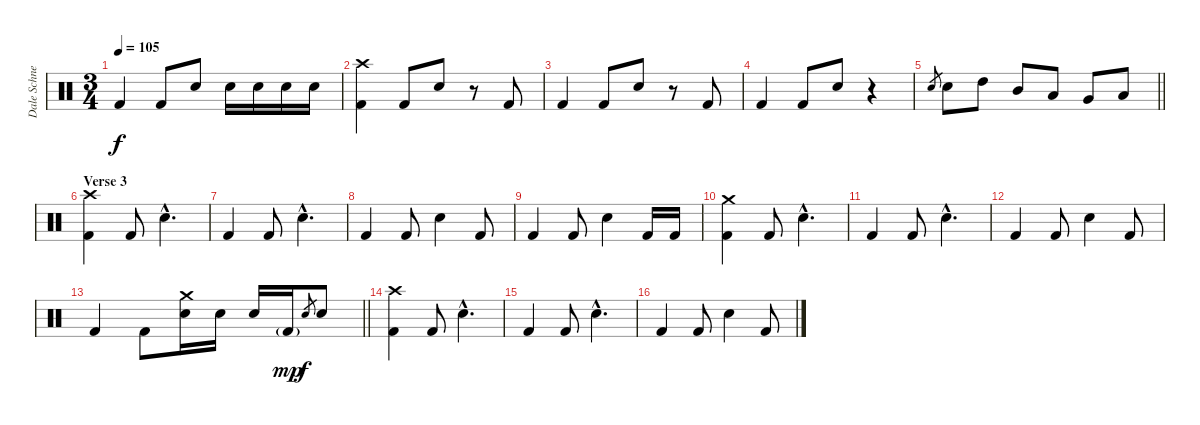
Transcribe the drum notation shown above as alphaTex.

\track ("Dale Schnettler (Drums)" "Dale Schne") {instrument percussion}
\staff {score}
\articulation defaults
\ts (3 4)
\tempo 105
\clef neutral
\ks c "Kick (hit) 2".4{dy f} "Kick (hit) 2".8 "Electric Snare (hit)".8 "Electric Snare (hit)".16 "Electric Snare (hit)".16 "Electric Snare (hit)".16 "Electric Snare (hit)".16
|
("Crash high (hit)" "Kick (hit) 2").4 "Kick (hit) 2".8 "Electric Snare (hit)".8 r.8 "Kick (hit) 2".8 |
"Kick (hit) 2".4 "Kick (hit) 2".8 "Electric Snare (hit)".8 r.8 "Kick (hit) 2".8 |
"Kick (hit) 2".4 "Kick (hit) 2".8 "Electric Snare (hit)".8 r.4 |
\barLineRight lightlight "Electric Snare (hit)".8{gr} "Electric Snare (hit)".8 "High Tom (hit)".8 "Mid Tom (hit)".8 "Low Tom (hit)".8 "Very Low Tom (hit)".8 "Low Floor Tom (hit)".8
|
\section ("" "Verse 3")
("Crash high (hit)" "Kick (hit) 2").4 "Kick (hit) 2".8 "Electric Snare (hit)"{hac}.4{d} |
"Kick (hit) 2".4 "Kick (hit) 2".8 "Electric Snare (hit)"{hac}.4{d} |
"Kick (hit) 2".4 "Kick (hit) 2".8 "Electric Snare (hit)".4 "Kick (hit) 2".8 |
"Kick (hit) 2".4 "Kick (hit) 2".8 "Electric Snare (hit)".4 "Kick (hit) 2".16 "Kick (hit) 2".16 |
("Crash medium (hit)" "Kick (hit) 2").4 "Kick (hit) 2".8 "Electric Snare (hit)"{hac}.4{d} |
"Kick (hit) 2".4 "Kick (hit) 2".8 "Electric Snare (hit)"{hac}.4{d} |
"Kick (hit) 2".4 "Kick (hit) 2".8 "Electric Snare (hit)".4 "Kick (hit) 2".8 |
\barLineRight lightlight "Kick (hit) 2".4 "Kick (hit) 2".8
("Crash medium (hit)" "Electric Snare (hit)").16 "Electric Snare (hit)".16 "Electric Snare (hit)".16 "Kick (hit) 2"{g}.16{dy mp} "Electric Snare (hit)".8{gr dy f} "Electric Snare (hit)".8 |
("Crash high (hit)" "Kick (hit) 2").4 "Kick (hit) 2".8 "Electric Snare (hit)"{hac}.4{d} |
"Kick (hit) 2".4 "Kick (hit) 2".8 "Electric Snare (hit)"{hac}.4{d} |
"Kick (hit) 2".4 "Kick (hit) 2".8 "Electric Snare (hit)".4 "Kick (hit) 2".8
